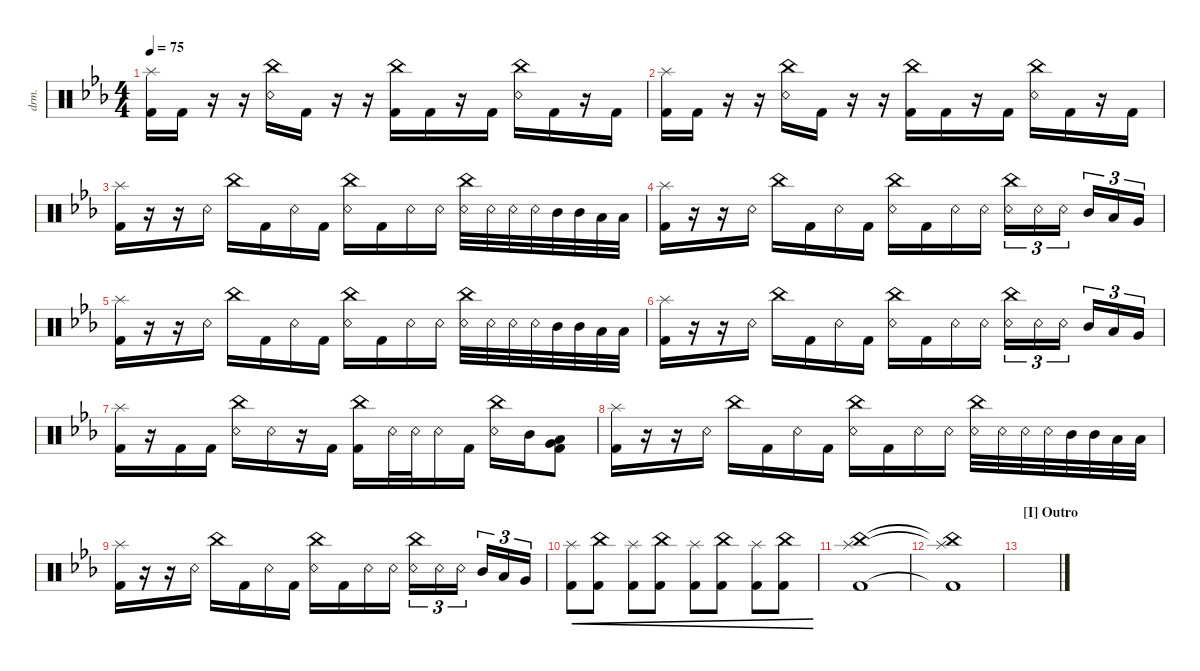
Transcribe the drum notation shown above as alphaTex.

\defaultSystemsLayout 4
\hideDynamics
\bracketExtendMode nobrackets
\otherSystemsTrackNameOrientation horizontal
\track ("Drumkit" "drm.") {instrument percussion}
\staff {score}
\articulation defaults
\ts (4 4)
\tempo 75
\clef neutral
\ks cminor
("Kick (hit) 2"{acc forcenatural} "Splash (hit)"{acc forcenatural}).16{dy ff beam Down} "Kick (hit) 2"{acc forcenatural}.16{beam Down} r.16{beam Down} r.16{beam Down} ("China (hit)"{acc forcenatural} "Snare (rim shot)"{acc forcenatural}).16{beam Down} "Kick (hit) 2"{acc forcenatural}.16{beam Down} r.16{beam Down} r.16{beam Down} ("China (hit)"{acc forcenatural} "Kick (hit) 2"{acc forcenatural}).16{beam Down} "Kick (hit) 2"{acc forcenatural}.16{beam Down} r.16{beam Down} "Kick (hit) 2"{acc forcenatural}.16{beam Down} ("China (hit)"{acc forcenatural} "Snare (rim shot)"{acc forcenatural}).16{beam Down} "Kick (hit) 2"{acc forcenatural}.16{beam Down} r.16{beam Down} "Kick (hit) 2"{acc forcenatural}.16{beam Down} |
("Kick (hit) 2"{acc forcenatural} "Splash (hit)"{acc forcenatural}).16{beam Down} "Kick (hit) 2"{acc forcenatural}.16{beam Down} r.16{beam Down} r.16{beam Down} ("China (hit)"{acc forcenatural} "Snare (rim shot)"{acc forcenatural}).16{beam Down} "Kick (hit) 2"{acc forcenatural}.16{beam Down} r.16{beam Down} r.16{beam Down} ("China (hit)"{acc forcenatural} "Kick (hit) 2"{acc forcenatural}).16{beam Down} "Kick (hit) 2"{acc forcenatural}.16{beam Down} r.16{beam Down} "Kick (hit) 2"{acc forcenatural}.16{beam Down} ("China (hit)"{acc forcenatural} "Snare (rim shot)"{acc forcenatural}).16{beam Down} "Kick (hit) 2"{acc forcenatural}.16{beam Down} r.16{beam Down} "Kick (hit) 2"{acc forcenatural}.16{beam Down} |
("Splash (hit)"{acc forcenatural} "Kick (hit) 2"{acc forcenatural}).16{beam Down} r.16{beam Down} r.16{beam Down} "Snare (rim shot)"{acc forcenatural}.16{beam Down} "China (hit)"{acc forcenatural}.16{beam Down} "Kick (hit) 2"{acc forcenatural}.16{beam Down} "Snare (rim shot)"{acc forcenatural}.16{beam Down} "Kick (hit) 2"{acc forcenatural}.16{beam Down} ("China (hit)"{acc forcenatural} "Snare (rim shot)"{acc forcenatural}).16{beam Down} "Kick (hit) 2"{acc forcenatural}.16{beam Down} "Snare (rim shot)"{acc forcenatural}.16{beam Down} "Snare (rim shot)"{acc forcenatural}.16{beam Down} ("China (hit)"{acc forcenatural} "Snare (rim shot)"{acc forcenatural}).32{beam Down} "Snare (rim shot)"{acc forcenatural}.32{beam Down} "Snare (rim shot)"{acc forcenatural}.32{beam Down} "Snare (rim shot)"{acc forcenatural}.32{beam Down} "Mid Tom (hit)"{acc forcenatural}.32{beam Down} "Mid Tom (hit)"{acc forcenatural}.32{beam Down} "Low Tom (hit)"{acc forcenatural}.32{beam Down} "Low Tom (hit)"{acc forcenatural}.32{beam Down} |
("Splash (hit)"{acc forcenatural} "Kick (hit) 2"{acc forcenatural}).16{beam Down} r.16{beam Down} r.16{beam Down} "Snare (rim shot)"{acc forcenatural}.16{beam Down} "China (hit)"{acc forcenatural}.16{beam Down} "Kick (hit) 2"{acc forcenatural}.16{beam Down} "Snare (rim shot)"{acc forcenatural}.16{beam Down} "Kick (hit) 2"{acc forcenatural}.16{beam Down} ("China (hit)"{acc forcenatural} "Snare (rim shot)"{acc forcenatural}).16{beam Down} "Kick (hit) 2"{acc forcenatural}.16{beam Down} "Snare (rim shot)"{acc forcenatural}.16{beam Down} "Snare (rim shot)"{acc forcenatural}.16{beam Down} ("China (hit)"{acc forcenatural} "Snare (rim shot)"{acc forcenatural}).16{tu (3 2) beam Down} "Snare (rim shot)"{acc forcenatural}.16{tu (3 2) beam Down} "Snare (rim shot)"{acc forcenatural}.16{tu (3 2) beam Down} "Mid Tom (hit)"{acc forcenatural}.16{tu (3 2) beam Up} "Low Tom (hit)"{acc forcenatural}.16{tu (3 2) beam Up} "Very Low Tom (hit)"{acc forcenatural}.16{tu (3 2) beam Up} |
("Splash (hit)"{acc forcenatural} "Kick (hit) 2"{acc forcenatural}).16{beam Down} r.16{beam Down} r.16{beam Down} "Snare (rim shot)"{acc forcenatural}.16{beam Down} "China (hit)"{acc forcenatural}.16{beam Down} "Kick (hit) 2"{acc forcenatural}.16{beam Down} "Snare (rim shot)"{acc forcenatural}.16{beam Down} "Kick (hit) 2"{acc forcenatural}.16{beam Down} ("China (hit)"{acc forcenatural} "Snare (rim shot)"{acc forcenatural}).16{beam Down} "Kick (hit) 2"{acc forcenatural}.16{beam Down} "Snare (rim shot)"{acc forcenatural}.16{beam Down} "Snare (rim shot)"{acc forcenatural}.16{beam Down} ("China (hit)"{acc forcenatural} "Snare (rim shot)"{acc forcenatural}).32{beam Down} "Snare (rim shot)"{acc forcenatural}.32{beam Down} "Snare (rim shot)"{acc forcenatural}.32{beam Down} "Snare (rim shot)"{acc forcenatural}.32{beam Down} "Mid Tom (hit)"{acc forcenatural}.32{beam Down} "Mid Tom (hit)"{acc forcenatural}.32{beam Down} "Low Tom (hit)"{acc forcenatural}.32{beam Down} "Low Tom (hit)"{acc forcenatural}.32{beam Down} |
("Splash (hit)"{acc forcenatural} "Kick (hit) 2"{acc forcenatural}).16{beam Down} r.16{beam Down} r.16{beam Down} "Snare (rim shot)"{acc forcenatural}.16{beam Down} "China (hit)"{acc forcenatural}.16{beam Down} "Kick (hit) 2"{acc forcenatural}.16{beam Down} "Snare (rim shot)"{acc forcenatural}.16{beam Down} "Kick (hit) 2"{acc forcenatural}.16{beam Down} ("China (hit)"{acc forcenatural} "Snare (rim shot)"{acc forcenatural}).16{beam Down} "Kick (hit) 2"{acc forcenatural}.16{beam Down} "Snare (rim shot)"{acc forcenatural}.16{beam Down} "Snare (rim shot)"{acc forcenatural}.16{beam Down} ("China (hit)"{acc forcenatural} "Snare (rim shot)"{acc forcenatural}).16{tu (3 2) beam Down} "Snare (rim shot)"{acc forcenatural}.16{tu (3 2) beam Down} "Snare (rim shot)"{acc forcenatural}.16{tu (3 2) beam Down} "Mid Tom (hit)"{acc forcenatural}.16{tu (3 2) beam Up} "Low Tom (hit)"{acc forcenatural}.16{tu (3 2) beam Up} "Very Low Tom (hit)"{acc forcenatural}.16{tu (3 2) beam Up} |
("Splash (hit)"{acc forcenatural} "Kick (hit) 2"{acc forcenatural}).16{beam Down} r.16{beam Down} "Kick (hit) 2"{acc forcenatural}.16{beam Down} "Kick (hit) 2"{acc forcenatural}.16{beam Down} ("China (hit)"{acc forcenatural} "Snare (rim shot)"{acc forcenatural}).16{beam Down} "Snare (rim shot)"{acc forcenatural}.16{beam Down} r.16{beam Down} "Kick (hit) 2"{acc forcenatural}.16{beam Down} ("Kick (hit) 2"{acc forcenatural} "China (hit)"{acc forcenatural}).16{beam Down} "Snare (rim shot)"{acc forcenatural}.32{beam Down} "Snare (rim shot)"{acc forcenatural}.32{beam Down} "Snare (rim shot)"{acc forcenatural}.16{beam Down} "Kick (hit) 2"{acc forcenatural}.16{beam Down} ("Snare (rim shot)"{acc forcenatural} "China (hit)"{acc forcenatural}).16{beam Down} "Mid Tom (hit)"{acc forcenatural}.16{beam Down} ("Very Low Tom (hit)"{acc forcenatural} "Kick (hit) 2"{acc forcenatural} "Low Tom (hit)"{acc forcenatural}).8{beam Down} |
("Splash (hit)"{acc forcenatural} "Kick (hit) 2"{acc forcenatural}).16{beam Down} r.16{beam Down} r.16{beam Down} "Snare (rim shot)"{acc forcenatural}.16{beam Down} "China (hit)"{acc forcenatural}.16{beam Down} "Kick (hit) 2"{acc forcenatural}.16{beam Down} "Snare (rim shot)"{acc forcenatural}.16{beam Down} "Kick (hit) 2"{acc forcenatural}.16{beam Down} ("China (hit)"{acc forcenatural} "Snare (rim shot)"{acc forcenatural}).16{beam Down} "Kick (hit) 2"{acc forcenatural}.16{beam Down} "Snare (rim shot)"{acc forcenatural}.16{beam Down} "Snare (rim shot)"{acc forcenatural}.16{beam Down} ("China (hit)"{acc forcenatural} "Snare (rim shot)"{acc forcenatural}).32{beam Down} "Snare (rim shot)"{acc forcenatural}.32{beam Down} "Snare (rim shot)"{acc forcenatural}.32{beam Down} "Snare (rim shot)"{acc forcenatural}.32{beam Down} "Mid Tom (hit)"{acc forcenatural}.32{beam Down} "Mid Tom (hit)"{acc forcenatural}.32{beam Down} "Low Tom (hit)"{acc forcenatural}.32{beam Down} "Low Tom (hit)"{acc forcenatural}.32{beam Down} |
("Splash (hit)"{acc forcenatural} "Kick (hit) 2"{acc forcenatural}).16{beam Down} r.16{beam Down} r.16{beam Down} "Snare (rim shot)"{acc forcenatural}.16{beam Down} "China (hit)"{acc forcenatural}.16{beam Down} "Kick (hit) 2"{acc forcenatural}.16{beam Down} "Snare (rim shot)"{acc forcenatural}.16{beam Down} "Kick (hit) 2"{acc forcenatural}.16{beam Down} ("China (hit)"{acc forcenatural} "Snare (rim shot)"{acc forcenatural}).16{beam Down} "Kick (hit) 2"{acc forcenatural}.16{beam Down} "Snare (rim shot)"{acc forcenatural}.16{beam Down} "Snare (rim shot)"{acc forcenatural}.16{beam Down} ("China (hit)"{acc forcenatural} "Snare (rim shot)"{acc forcenatural}).16{tu (3 2) beam Down} "Snare (rim shot)"{acc forcenatural}.16{tu (3 2) beam Down} "Snare (rim shot)"{acc forcenatural}.16{tu (3 2) beam Down} "Mid Tom (hit)"{acc forcenatural}.16{tu (3 2) beam Up} "Low Tom (hit)"{acc forcenatural}.16{tu (3 2) beam Up} "Very Low Tom (hit)"{acc forcenatural}.16{tu (3 2) beam Up} |
("Splash (hit)"{acc forcenatural} "Kick (hit) 2"{acc forcenatural}).8{cre dy mf beam Down} ("Kick (hit) 2"{acc forcenatural} "China (hit)"{acc forcenatural}).8{cre beam Down} ("Kick (hit) 2"{acc forcenatural} "Splash (hit)"{acc forcenatural}).8{cre beam Down} ("Kick (hit) 2"{acc forcenatural} "China (hit)"{acc forcenatural}).8{cre beam Down} ("Kick (hit) 2"{acc forcenatural} "Splash (hit)"{acc forcenatural}).8{cre dy f beam Down} ("Kick (hit) 2"{acc forcenatural} "China (hit)"{acc forcenatural}).8{cre beam Down} ("Kick (hit) 2"{acc forcenatural} "Splash (hit)"{acc forcenatural}).8{cre dy ff beam Down} ("Kick (hit) 2"{acc forcenatural} "China (hit)"{acc forcenatural}).8{cre beam Down} |
("Kick (hit) 2"{acc forcenatural} "Splash (hit)"{acc forcenatural} "China (hit)"{acc forcenatural}).1{beam Down} |
("Kick (hit) 2"{t acc forcenatural} "Splash (hit)"{t acc forcenatural} "China (hit)"{t acc forcenatural}).1{beam Down} |
\section ("I" "Outro")
